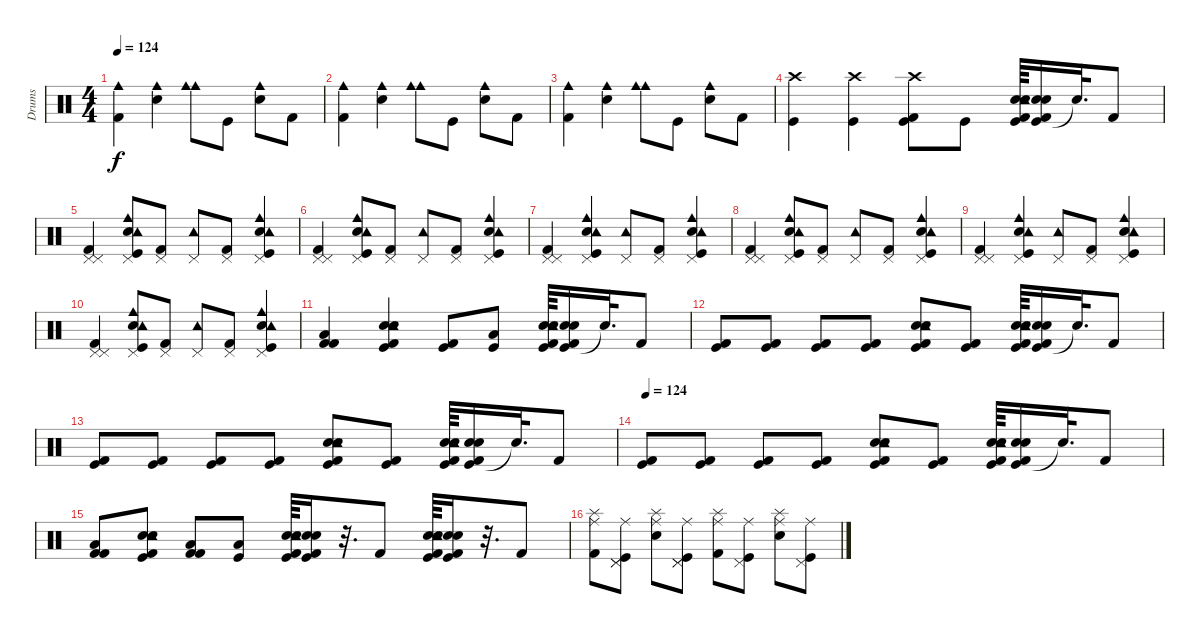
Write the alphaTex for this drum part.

\track ("Drums " "Drums ") {instrument percussion}
\staff {score}
\articulation defaults
\ts (4 4)
\tempo 124
\clef neutral
\ks c
("Kick (hit) 2" "Cowbell medium (hit)").4{dy f} ("Cowbell medium (hit)" "Electric Snare (hit)").4 ("Cowbell medium (hit)" "Cowbell medium (hit)").8 "Kick (hit)".8 ("Cowbell medium (hit)" "Electric Snare (hit)").8 "Kick (hit) 2".8 |
("Kick (hit) 2" "Cowbell medium (hit)").4 ("Cowbell medium (hit)" "Electric Snare (hit)").4 ("Cowbell medium (hit)" "Cowbell medium (hit)").8 "Kick (hit)".8 ("Cowbell medium (hit)" "Electric Snare (hit)").8 "Kick (hit) 2".8 |
("Kick (hit) 2" "Cowbell medium (hit)").4 ("Cowbell medium (hit)" "Electric Snare (hit)").4 ("Cowbell medium (hit)" "Cowbell medium (hit)").8 "Kick (hit)".8 ("Cowbell medium (hit)" "Electric Snare (hit)").8 "Kick (hit) 2".8 |
("Kick (hit)" "Crash high (hit)").4 ("Crash high (hit)" "Kick (hit)").4 ("Kick (hit)" "Kick (hit) 2" "Crash high (hit)").8 "Kick (hit)".8 ("Kick (hit)" "Kick (hit) 2" "Electric Snare (hit)" "Tambourine (hit)" "Snare (hit) 2").64 ("Kick (hit)" "Kick (hit) 2" "Electric Snare (hit)" "Snare (hit) 2").16 "Snare (hit)"{t}.32{d} "Kick (hit) 2".8 |
("Pedal Hi-Hat (hit)" "Pedal Hi-Hat (hit)" "Kick (hit) 2").4 ("Pedal Hi-Hat (hit)" "Kick (hit)" "Cowbell medium (hit)" "Electric Snare (hit)" "Tambourine (hit)").8 ("Pedal Hi-Hat (hit)" "Kick (hit) 2").8 ("Pedal Hi-Hat (hit)" "Tambourine (hit)").8 ("Pedal Hi-Hat (hit)" "Kick (hit) 2").8 ("Pedal Hi-Hat (hit)" "Kick (hit)" "Cowbell medium (hit)" "Electric Snare (hit)" "Tambourine (hit)").4 |
("Pedal Hi-Hat (hit)" "Pedal Hi-Hat (hit)" "Kick (hit) 2").4 ("Pedal Hi-Hat (hit)" "Kick (hit)" "Cowbell medium (hit)" "Electric Snare (hit)" "Tambourine (hit)").8 ("Pedal Hi-Hat (hit)" "Kick (hit) 2").8 ("Pedal Hi-Hat (hit)" "Tambourine (hit)").8 ("Pedal Hi-Hat (hit)" "Kick (hit) 2").8 ("Pedal Hi-Hat (hit)" "Kick (hit)" "Cowbell medium (hit)" "Electric Snare (hit)" "Tambourine (hit)").4 |
("Pedal Hi-Hat (hit)" "Pedal Hi-Hat (hit)" "Kick (hit) 2").4 ("Pedal Hi-Hat (hit)" "Kick (hit)" "Cowbell medium (hit)" "Electric Snare (hit)" "Tambourine (hit)").4 ("Pedal Hi-Hat (hit)" "Tambourine (hit)").8 ("Pedal Hi-Hat (hit)" "Kick (hit) 2").8 ("Pedal Hi-Hat (hit)" "Kick (hit)" "Cowbell medium (hit)" "Electric Snare (hit)" "Tambourine (hit)").4 |
("Pedal Hi-Hat (hit)" "Pedal Hi-Hat (hit)" "Kick (hit) 2").4 ("Pedal Hi-Hat (hit)" "Kick (hit)" "Cowbell medium (hit)" "Electric Snare (hit)" "Tambourine (hit)").8 ("Pedal Hi-Hat (hit)" "Kick (hit) 2").8 ("Pedal Hi-Hat (hit)" "Tambourine (hit)").8 ("Pedal Hi-Hat (hit)" "Kick (hit) 2").8 ("Pedal Hi-Hat (hit)" "Kick (hit)" "Cowbell medium (hit)" "Electric Snare (hit)" "Tambourine (hit)").4 |
("Pedal Hi-Hat (hit)" "Pedal Hi-Hat (hit)" "Kick (hit) 2").4 ("Pedal Hi-Hat (hit)" "Kick (hit)" "Cowbell medium (hit)" "Electric Snare (hit)" "Tambourine (hit)").4 ("Pedal Hi-Hat (hit)" "Tambourine (hit)").8 ("Pedal Hi-Hat (hit)" "Kick (hit) 2").8 ("Pedal Hi-Hat (hit)" "Kick (hit)" "Cowbell medium (hit)" "Electric Snare (hit)" "Tambourine (hit)").4 |
("Pedal Hi-Hat (hit)" "Pedal Hi-Hat (hit)" "Kick (hit) 2").4 ("Pedal Hi-Hat (hit)" "Kick (hit)" "Cowbell medium (hit)" "Electric Snare (hit)" "Tambourine (hit)").8 ("Pedal Hi-Hat (hit)" "Kick (hit) 2").8 ("Pedal Hi-Hat (hit)" "Tambourine (hit)").8 ("Pedal Hi-Hat (hit)" "Kick (hit) 2").8 ("Pedal Hi-Hat (hit)" "Kick (hit)" "Cowbell medium (hit)" "Electric Snare (hit)" "Tambourine (hit)").4 |
("Low Floor Tom (hit)" "Kick (hit) 2" "Kick (hit) 2").4 ("Electric Snare (hit)" "Kick (hit)" "Kick (hit) 2" "Snare (hit) 2" "Tambourine (hit)").4 ("Kick (hit) 2" "Kick (hit)").8 ("Low Floor Tom (hit)" "Kick (hit)").8 ("Kick (hit)" "Kick (hit) 2" "Electric Snare (hit)" "Tambourine (hit)" "Snare (hit) 2").64 ("Kick (hit)" "Kick (hit) 2" "Electric Snare (hit)" "Snare (hit) 2").16 "Snare (hit)"{t}.32{d} "Kick (hit) 2".8 |
("Kick (hit)" "Kick (hit) 2").8 ("Kick (hit)" "Kick (hit) 2").8 ("Kick (hit) 2" "Kick (hit)").8 ("Kick (hit) 2" "Kick (hit)").8 ("Kick (hit)" "Kick (hit) 2" "Electric Snare (hit)" "Tambourine (hit)" "Snare (hit) 2").8 ("Kick (hit)" "Kick (hit) 2").8 ("Kick (hit)" "Kick (hit) 2" "Electric Snare (hit)" "Tambourine (hit)" "Snare (hit) 2").64 ("Kick (hit)" "Kick (hit) 2" "Electric Snare (hit)" "Snare (hit) 2").16 "Snare (hit)"{t}.32{d} "Kick (hit) 2".8 |
("Kick (hit)" "Kick (hit) 2").8 ("Kick (hit)" "Kick (hit) 2").8 ("Kick (hit) 2" "Kick (hit)").8 ("Kick (hit) 2" "Kick (hit)").8 ("Kick (hit)" "Kick (hit) 2" "Electric Snare (hit)" "Tambourine (hit)" "Snare (hit) 2").8 ("Kick (hit)" "Kick (hit) 2").8 ("Kick (hit)" "Kick (hit) 2" "Electric Snare (hit)" "Tambourine (hit)" "Snare (hit) 2").64 ("Kick (hit)" "Kick (hit) 2" "Electric Snare (hit)" "Snare (hit) 2").16 "Snare (hit)"{t}.32{d} "Kick (hit) 2".8 |
\tempo 124
("Kick (hit)" "Kick (hit) 2").8 ("Kick (hit)" "Kick (hit) 2").8 ("Kick (hit) 2" "Kick (hit)").8 ("Kick (hit) 2" "Kick (hit)").8 ("Kick (hit)" "Kick (hit) 2" "Electric Snare (hit)" "Tambourine (hit)" "Snare (hit) 2").8 ("Kick (hit)" "Kick (hit) 2").8 ("Kick (hit)" "Kick (hit) 2" "Electric Snare (hit)" "Tambourine (hit)" "Snare (hit) 2").64 ("Kick (hit)" "Kick (hit) 2" "Electric Snare (hit)" "Snare (hit) 2").16 "Snare (hit)"{t}.32{d} "Kick (hit) 2".8 |
("Low Floor Tom (hit)" "Kick (hit) 2" "Kick (hit) 2").8 ("Electric Snare (hit)" "Kick (hit)" "Kick (hit) 2" "Snare (hit) 2" "Tambourine (hit)").8 ("Low Floor Tom (hit)" "Kick (hit) 2" "Kick (hit) 2").8 ("Low Floor Tom (hit)" "Kick (hit)").8 ("Kick (hit)" "Kick (hit) 2" "Electric Snare (hit)" "Tambourine (hit)" "Snare (hit) 2").64 ("Kick (hit)" "Kick (hit) 2" "Electric Snare (hit)" "Snare (hit) 2").16 r.32{d} "Kick (hit) 2".8 ("Kick (hit)" "Kick (hit) 2" "Electric Snare (hit)" "Tambourine (hit)" "Snare (hit) 2").64 ("Kick (hit)" "Kick (hit) 2" "Electric Snare (hit)" "Snare (hit) 2").16 r.32{d} "Kick (hit) 2".8 |
("Splash (hit)" "Ride (middle)" "Kick (hit) 2").8 ("Pedal Hi-Hat (hit)" "Ride (middle)" "Kick (hit)" "Pedal Hi-Hat (hit)").8 ("Splash (hit)" "Ride (middle)" "Electric Snare (hit)").8 ("Pedal Hi-Hat (hit)" "Ride (middle)" "Kick (hit)" "Pedal Hi-Hat (hit)").8 ("Splash (hit)" "Ride (middle)" "Kick (hit) 2").8 ("Pedal Hi-Hat (hit)" "Ride (middle)" "Kick (hit)").8 ("Splash (hit)" "Ride (middle)" "Electric Snare (hit)").8 ("Pedal Hi-Hat (hit)" "Ride (middle)" "Kick (hit)").8
